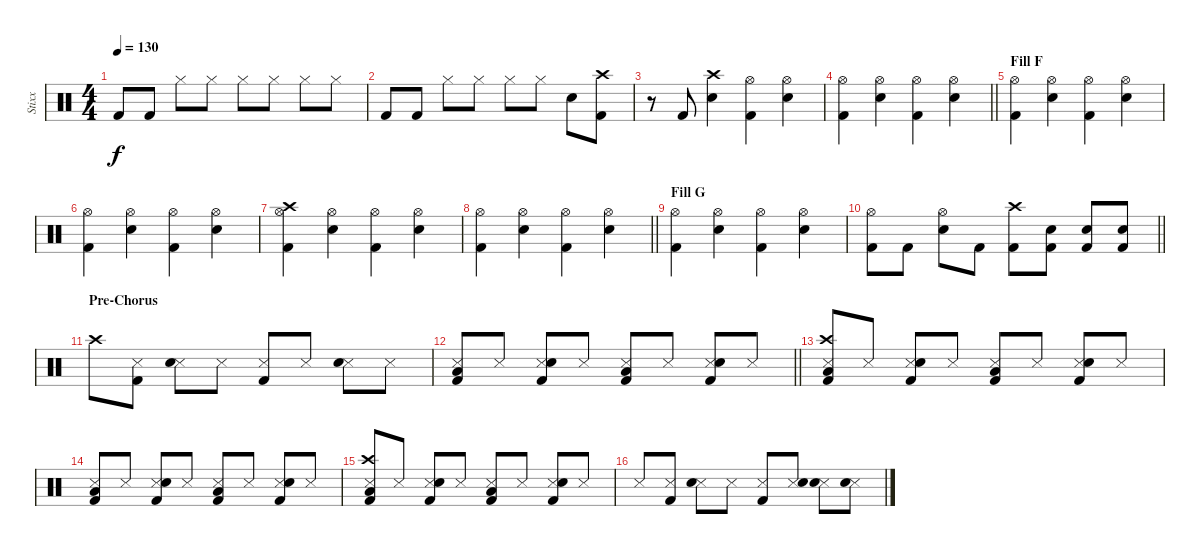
\track ("Stixx" "Stixx") {instrument percussion}
\staff {score}
\articulation defaults
\ts (4 4)
\tempo 130
\clef neutral
\ks c "Kick (hit) 2".8{dy f} "Kick (hit) 2".8 "Hi-Hat (closed)".8 "Hi-Hat (closed)".8 "Hi-Hat (closed)".8 "Hi-Hat (closed)".8 "Hi-Hat (closed)".8 "Hi-Hat (closed)".8
|
"Kick (hit) 2".8 "Kick (hit) 2".8 "Hi-Hat (closed)".8 "Hi-Hat (closed)".8 "Hi-Hat (closed)".8 "Hi-Hat (closed)".8 "Snare (hit) 2".8 ("Crash high (hit)" "Kick (hit) 2").8 |
r.8 "Kick (hit) 2".8 ("Crash high (hit)" "Snare (hit) 2").4 ("Hi-Hat (open)" "Kick (hit) 2").4 ("Hi-Hat (open)" "Snare (hit) 2").4 |
\barLineRight lightlight
("Hi-Hat (open)" "Kick (hit) 2").4 ("Hi-Hat (open)" "Snare (hit) 2").4 ("Hi-Hat (open)" "Kick (hit) 2").4 ("Hi-Hat (open)" "Snare (hit) 2").4 |
\section ("" "Fill F")
("Hi-Hat (open)" "Kick (hit) 2").4 ("Hi-Hat (open)" "Snare (hit) 2").4 ("Hi-Hat (open)" "Kick (hit) 2").4 ("Hi-Hat (open)" "Snare (hit) 2").4 |
("Hi-Hat (open)" "Kick (hit) 2").4 ("Hi-Hat (open)" "Snare (hit) 2").4 ("Hi-Hat (open)" "Kick (hit) 2").4 ("Hi-Hat (open)" "Snare (hit) 2").4 |
("Crash high (hit)" "Hi-Hat (open)" "Kick (hit) 2").4 ("Hi-Hat (open)" "Snare (hit) 2").4 ("Hi-Hat (open)" "Kick (hit) 2").4 ("Hi-Hat (open)" "Snare (hit) 2").4 |
\barLineRight lightlight
("Hi-Hat (open)" "Kick (hit) 2").4 ("Hi-Hat (open)" "Snare (hit) 2").4 ("Hi-Hat (open)" "Kick (hit) 2").4 ("Hi-Hat (open)" "Snare (hit) 2").4 |
\section ("" "Fill G")
("Hi-Hat (open)" "Kick (hit) 2").4 ("Hi-Hat (open)" "Snare (hit) 2").4 ("Hi-Hat (open)" "Kick (hit) 2").4 ("Hi-Hat (open)" "Snare (hit) 2").4 |
\barLineRight lightlight
("Hi-Hat (open)" "Kick (hit) 2").8 "Kick (hit) 2".8 ("Hi-Hat (open)" "Snare (hit) 2").8 "Kick (hit) 2".8 ("Crash high (hit)" "Kick (hit) 2").8 ("Snare (hit) 2" "Kick (hit) 2").8 ("Snare (hit) 2" "Kick (hit) 2").8 ("Snare (hit) 2" "Kick (hit) 2").8 |
\section ("" "Pre-Chorus")
"Crash high (hit)".8 ("Snare (side stick) 3" "Kick (hit) 2").8 ("Snare (side stick) 3" "Snare (hit) 2").8 "Snare (side stick) 3".8 ("Snare (side stick) 3" "Kick (hit) 2").8 "Snare (side stick) 3".8 ("Snare (side stick) 3" "Snare (hit) 2").8 "Snare (side stick) 3".8 |
\barLineRight lightlight
("Snare (side stick) 3" "Low Floor Tom (hit)" "Kick (hit) 2").8 "Snare (side stick) 3".8 ("Snare (side stick) 3" "Snare (hit) 2" "Kick (hit) 2").8 "Snare (side stick) 3".8 ("Snare (side stick) 3" "Low Floor Tom (hit)" "Kick (hit) 2").8 "Snare (side stick) 3".8 ("Snare (side stick) 3" "Snare (hit) 2" "Kick (hit) 2").8 "Snare (side stick) 3".8 |
("Crash high (hit)" "Snare (side stick) 3" "Low Floor Tom (hit)" "Kick (hit) 2").8 "Snare (side stick) 3".8 ("Snare (side stick) 3" "Snare (hit) 2" "Kick (hit) 2").8 "Snare (side stick) 3".8 ("Snare (side stick) 3" "Low Floor Tom (hit)" "Kick (hit) 2").8 "Snare (side stick) 3".8 ("Snare (side stick) 3" "Snare (hit) 2" "Kick (hit) 2").8 "Snare (side stick) 3".8 |
("Snare (side stick) 3" "Low Floor Tom (hit)" "Kick (hit) 2").8 "Snare (side stick) 3".8 ("Snare (side stick) 3" "Snare (hit) 2" "Kick (hit) 2").8 "Snare (side stick) 3".8 ("Snare (side stick) 3" "Low Floor Tom (hit)" "Kick (hit) 2").8 "Snare (side stick) 3".8 ("Snare (side stick) 3" "Snare (hit) 2" "Kick (hit) 2").8 "Snare (side stick) 3".8 |
("Crash high (hit)" "Snare (side stick) 3" "Low Floor Tom (hit)" "Kick (hit) 2").8 "Snare (side stick) 3".8 ("Snare (side stick) 3" "Snare (hit) 2" "Kick (hit) 2").8 "Snare (side stick) 3".8 ("Snare (side stick) 3" "Low Floor Tom (hit)" "Kick (hit) 2").8 "Snare (side stick) 3".8 ("Snare (side stick) 3" "Snare (hit) 2" "Kick (hit) 2").8 "Snare (side stick) 3".8 |
"Snare (side stick) 3".8 ("Snare (side stick) 3" "Kick (hit) 2").8 ("Snare (side stick) 3" "Snare (hit) 2").8 "Snare (side stick) 3".8 ("Snare (side stick) 3" "Kick (hit) 2").8 ("Snare (side stick) 3" "Snare (hit) 2").8 ("Snare (side stick) 3" "Snare (hit) 2").8 ("Snare (side stick) 3" "Snare (hit) 2").8
